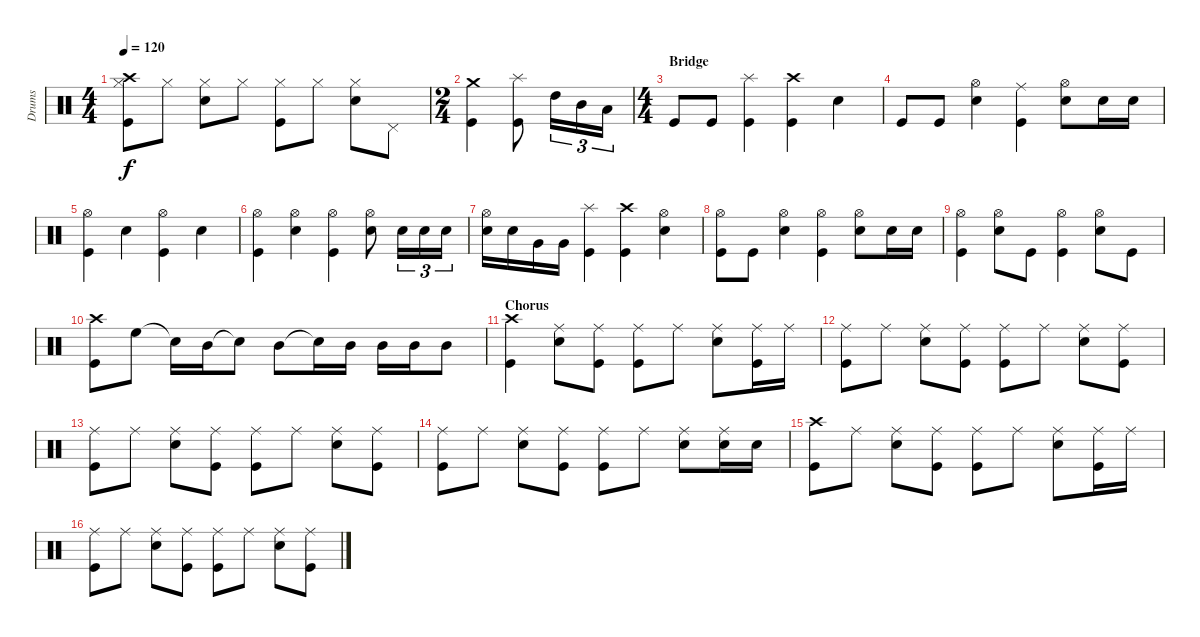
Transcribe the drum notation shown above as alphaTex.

\track ("Drums" "Drums") {instrument percussion}
\staff {score}
\articulation defaults
\ts (4 4)
\tempo 120
\clef neutral
\ks c
("Crash high (hit)" "Hi-Hat (closed)" "Kick (hit)").8{dy f} "Hi-Hat (closed)".8 ("Hi-Hat (closed)" "Snare (hit) 2").8 "Hi-Hat (closed)".8 ("Hi-Hat (closed)" "Kick (hit)").8 "Hi-Hat (closed)".8 ("Hi-Hat (closed)" "Snare (hit) 2").8 "Pedal Hi-Hat (hit)".8 |
\ts (2 4)
("Crash medium (hit)" "Kick (hit)").4 ("Splash (hit)" "Kick (hit)").8 "High Tom (hit)".16{tu (3 2)} "Mid Tom (hit)".16{tu (3 2)} "Low Tom (hit)".16{tu (3 2)} |
\ts (4 4)
\section ("" "Bridge")
"Kick (hit)".8 "Kick (hit)".8 ("Splash (hit)" "Kick (hit)").4 ("Crash high (hit)" "Kick (hit)").4 "Snare (hit) 2".4 |
"Kick (hit)".8 "Kick (hit)".8 ("Hi-Hat (open)" "Snare (hit) 2").4 ("Ride (middle)" "Kick (hit)").4 ("Hi-Hat (open)" "Snare (hit) 2").8 "Snare (hit) 2".16 "Snare (hit) 2".16 |
("Hi-Hat (open)" "Kick (hit)").4 "Snare (hit) 2".4 ("Hi-Hat (open)" "Kick (hit)").4 "Snare (hit) 2".4 |
("Hi-Hat (open)" "Kick (hit)").4 ("Hi-Hat (open)" "Snare (hit) 2").4 ("Hi-Hat (open)" "Kick (hit)").4 ("Hi-Hat (open)" "Snare (hit) 2").8 "Snare (hit) 2".16{tu (3 2)} "Snare (hit) 2".16{tu (3 2)} "Snare (hit) 2".16{tu (3 2)} |
("Hi-Hat (open)" "Snare (hit) 2").16 "Snare (hit) 2".16 "Very Low Tom (hit)".16 "Very Low Tom (hit)".16 ("Splash (hit)" "Kick (hit)").4 ("Crash high (hit)" "Kick (hit)").4 ("Hi-Hat (open)" "Snare (hit) 2").4 |
("Hi-Hat (open)" "Kick (hit)").8 "Kick (hit)".8 ("Hi-Hat (open)" "Snare (hit) 2").4 ("Hi-Hat (open)" "Kick (hit)").4 ("Hi-Hat (open)" "Snare (hit) 2").8 "Snare (hit) 2".16 "Snare (hit) 2".16 |
("Hi-Hat (open)" "Kick (hit)").4 ("Hi-Hat (open)" "Snare (hit) 2").8 "Kick (hit)".8 ("Hi-Hat (open)" "Kick (hit)").4 ("Hi-Hat (open)" "Snare (hit) 2").8 "Kick (hit)".8 |
("Crash high (hit)" "Kick (hit)").8 "High Floor Tom (hit)".8 "Snare (hit)"{t}.16 "Mid Tom (hit)".16 "Snare (hit)"{t}.8 "Mid Tom (hit)".8 "Snare (hit)"{t}.16 "Mid Tom (hit)".16 "Mid Tom (hit)".16 "Mid Tom (hit)".16 "Mid Tom (hit)".8 |
\section ("" "Chorus")
("Crash high (hit)" "Kick (hit)").4 ("Ride (middle)" "Snare (hit) 2").8 ("Ride (middle)" "Kick (hit)").8 ("Ride (middle)" "Kick (hit)").8 "Ride (middle)".8 ("Ride (middle)" "Snare (hit) 2").8 ("Ride (middle)" "Kick (hit)").16 "Ride (middle)".16 |
("Ride (middle)" "Kick (hit)").8 "Ride (middle)".8 ("Ride (middle)" "Snare (hit) 2").8 ("Ride (middle)" "Kick (hit)").8 ("Ride (middle)" "Kick (hit)").8 "Ride (middle)".8 ("Ride (middle)" "Snare (hit) 2").8 ("Ride (middle)" "Kick (hit)").8 |
("Ride (middle)" "Kick (hit)").8 "Ride (middle)".8 ("Ride (middle)" "Snare (hit) 2").8 ("Ride (middle)" "Kick (hit)").8 ("Ride (middle)" "Kick (hit)").8 "Ride (middle)".8 ("Ride (middle)" "Snare (hit) 2").8 ("Ride (middle)" "Kick (hit)").8 |
("Ride (middle)" "Kick (hit)").8 "Ride (middle)".8 ("Ride (middle)" "Snare (hit) 2").8 ("Ride (middle)" "Kick (hit)").8 ("Ride (middle)" "Kick (hit)").8 "Ride (middle)".8 ("Ride (middle)" "Snare (hit) 2").8 ("Ride (middle)" "Snare (hit) 2").16 "Snare (hit) 2".16 |
("Crash high (hit)" "Kick (hit)").8 "Ride (middle)".8 ("Ride (middle)" "Snare (hit) 2").8 ("Ride (middle)" "Kick (hit)").8 ("Ride (middle)" "Kick (hit)").8 "Ride (middle)".8 ("Ride (middle)" "Snare (hit) 2").8 ("Ride (middle)" "Kick (hit)").16 "Ride (middle)".16 |
("Ride (middle)" "Kick (hit)").8 "Ride (middle)".8 ("Ride (middle)" "Snare (hit) 2").8 ("Ride (middle)" "Kick (hit)").8 ("Ride (middle)" "Kick (hit)").8 "Ride (middle)".8 ("Ride (middle)" "Snare (hit) 2").8 ("Ride (middle)" "Kick (hit)").8
